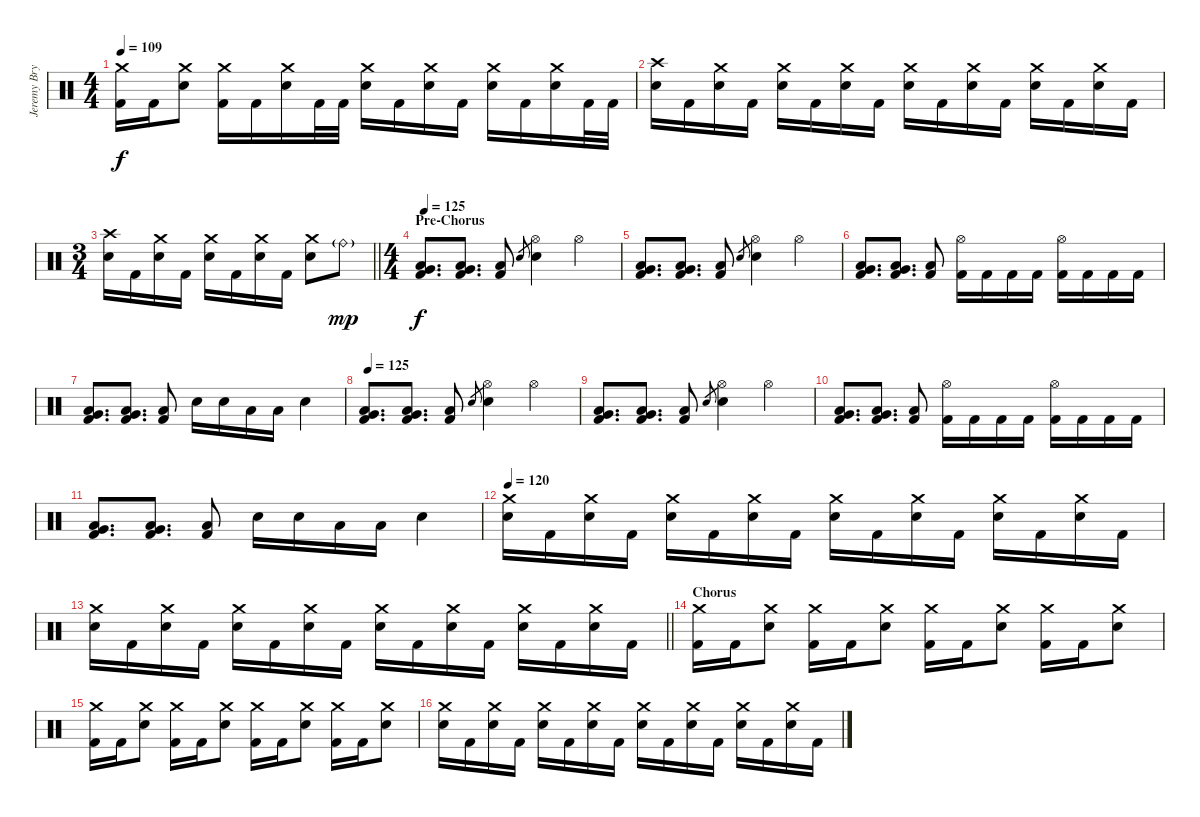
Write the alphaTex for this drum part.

\track ("Jeremy Bryan - Drums" "Jeremy Bry") {instrument percussion}
\staff {score}
\articulation defaults
\ts (4 4)
\tempo 109
\clef neutral
\ks c
("Crash medium (hit)" "Kick (hit) 2").16{dy f} "Kick (hit) 2".16 ("Crash medium (hit)" "Electric Snare (hit)").8 ("Crash medium (hit)" "Kick (hit) 2").16 "Kick (hit) 2".16 ("Crash medium (hit)" "Electric Snare (hit)").16 "Kick (hit) 2".32 "Kick (hit) 2".32 ("Crash medium (hit)" "Electric Snare (hit)").16 "Kick (hit) 2".16 ("Crash medium (hit)" "Electric Snare (hit)").16 "Kick (hit) 2".16 ("Crash medium (hit)" "Electric Snare (hit)").16 "Kick (hit) 2".16 ("Crash medium (hit)" "Electric Snare (hit)").16 "Kick (hit) 2".32 "Kick (hit) 2".32 |
("Crash high (hit)" "Electric Snare (hit)").16 "Kick (hit) 2".16 ("Crash medium (hit)" "Electric Snare (hit)").16 "Kick (hit) 2".16 ("Crash medium (hit)" "Electric Snare (hit)").16 "Kick (hit) 2".16 ("Crash medium (hit)" "Electric Snare (hit)").16 "Kick (hit) 2".16 ("Crash medium (hit)" "Electric Snare (hit)").16 "Kick (hit) 2".16 ("Crash medium (hit)" "Electric Snare (hit)").16 "Kick (hit) 2".16 ("Crash medium (hit)" "Electric Snare (hit)").16 "Kick (hit) 2".16 ("Crash medium (hit)" "Electric Snare (hit)").16 "Kick (hit) 2".16 |
\ts (3 4)
\barLineRight lightlight
("Crash high (hit)" "Electric Snare (hit)").16 "Kick (hit) 2".16 ("Crash medium (hit)" "Electric Snare (hit)").16 "Kick (hit) 2".16 ("Crash medium (hit)" "Electric Snare (hit)").16 "Kick (hit) 2".16 ("Crash medium (hit)" "Electric Snare (hit)").16 "Kick (hit) 2".16 ("Crash medium (hit)" "Electric Snare (hit)").8 "Ride (bell)"{g}.8{dy mp} |
\ts (4 4)
\section ("" "Pre-Chorus")
\tempo 125
("Low Floor Tom (hit)" "Very Low Tom (hit)" "Kick (hit) 2").8{d dy f} ("Low Floor Tom (hit)" "Very Low Tom (hit)" "Kick (hit) 2").8{d} ("Low Floor Tom (hit)" "Kick (hit) 2").8 "Electric Snare (hit)".8{gr} ("Hi-Hat (open)" "Electric Snare (hit)").4 "Hi-Hat (open)".4 |
("Low Floor Tom (hit)" "Very Low Tom (hit)" "Kick (hit) 2").8{d} ("Low Floor Tom (hit)" "Very Low Tom (hit)" "Kick (hit) 2").8{d} ("Low Floor Tom (hit)" "Kick (hit) 2").8 "Electric Snare (hit)".8{gr} ("Hi-Hat (open)" "Electric Snare (hit)").4 "Hi-Hat (open)".4 |
("Low Floor Tom (hit)" "Very Low Tom (hit)" "Kick (hit) 2").8{d} ("Low Floor Tom (hit)" "Very Low Tom (hit)" "Kick (hit) 2").8{d} ("Low Floor Tom (hit)" "Kick (hit) 2").8 ("Hi-Hat (open)" "Kick (hit) 2").16 "Kick (hit) 2".16 "Kick (hit) 2".16 "Kick (hit) 2".16 ("Hi-Hat (open)" "Kick (hit) 2").16 "Kick (hit) 2".16 "Kick (hit) 2".16 "Kick (hit) 2".16 |
("Low Floor Tom (hit)" "Very Low Tom (hit)" "Kick (hit) 2").8{d} ("Low Floor Tom (hit)" "Very Low Tom (hit)" "Kick (hit) 2").8{d} ("Low Floor Tom (hit)" "Kick (hit) 2").8 "Electric Snare (hit)".16 "Electric Snare (hit)".16 "Low Tom (hit)".16 "Low Tom (hit)".16 "Electric Snare (hit)".4 |
\tempo 125
("Low Floor Tom (hit)" "Very Low Tom (hit)" "Kick (hit) 2").8{d} ("Low Floor Tom (hit)" "Very Low Tom (hit)" "Kick (hit) 2").8{d} ("Low Floor Tom (hit)" "Kick (hit) 2").8 "Electric Snare (hit)".8{gr} ("Hi-Hat (open)" "Electric Snare (hit)").4 "Hi-Hat (open)".4 |
("Low Floor Tom (hit)" "Very Low Tom (hit)" "Kick (hit) 2").8{d} ("Low Floor Tom (hit)" "Very Low Tom (hit)" "Kick (hit) 2").8{d} ("Low Floor Tom (hit)" "Kick (hit) 2").8 "Electric Snare (hit)".8{gr} ("Hi-Hat (open)" "Electric Snare (hit)").4 "Hi-Hat (open)".4 |
("Low Floor Tom (hit)" "Very Low Tom (hit)" "Kick (hit) 2").8{d} ("Low Floor Tom (hit)" "Very Low Tom (hit)" "Kick (hit) 2").8{d} ("Low Floor Tom (hit)" "Kick (hit) 2").8 ("Hi-Hat (open)" "Kick (hit) 2").16 "Kick (hit) 2".16 "Kick (hit) 2".16 "Kick (hit) 2".16 ("Hi-Hat (open)" "Kick (hit) 2").16 "Kick (hit) 2".16 "Kick (hit) 2".16 "Kick (hit) 2".16 |
("Low Floor Tom (hit)" "Very Low Tom (hit)" "Kick (hit) 2").8{d} ("Low Floor Tom (hit)" "Very Low Tom (hit)" "Kick (hit) 2").8{d} ("Low Floor Tom (hit)" "Kick (hit) 2").8 "Electric Snare (hit)".16 "Electric Snare (hit)".16 "Low Tom (hit)".16 "Low Tom (hit)".16 "Electric Snare (hit)".4 |
\tempo 120
("Crash medium (hit)" "Electric Snare (hit)").16 "Kick (hit) 2".16 ("Crash medium (hit)" "Electric Snare (hit)").16 "Kick (hit) 2".16 ("Crash medium (hit)" "Electric Snare (hit)").16 "Kick (hit) 2".16 ("Crash medium (hit)" "Electric Snare (hit)").16 "Kick (hit) 2".16 ("Crash medium (hit)" "Electric Snare (hit)").16 "Kick (hit) 2".16 ("Crash medium (hit)" "Electric Snare (hit)").16 "Kick (hit) 2".16 ("Crash medium (hit)" "Electric Snare (hit)").16 "Kick (hit) 2".16 ("Crash medium (hit)" "Electric Snare (hit)").16 "Kick (hit) 2".16 |
\barLineRight lightlight
("Crash medium (hit)" "Electric Snare (hit)").16 "Kick (hit) 2".16 ("Crash medium (hit)" "Electric Snare (hit)").16 "Kick (hit) 2".16 ("Crash medium (hit)" "Electric Snare (hit)").16 "Kick (hit) 2".16 ("Crash medium (hit)" "Electric Snare (hit)").16 "Kick (hit) 2".16 ("Crash medium (hit)" "Electric Snare (hit)").16 "Kick (hit) 2".16 ("Crash medium (hit)" "Electric Snare (hit)").16 "Kick (hit) 2".16 ("Crash medium (hit)" "Electric Snare (hit)").16 "Kick (hit) 2".16 ("Crash medium (hit)" "Electric Snare (hit)").16 "Kick (hit) 2".16 |
\section ("" "Chorus")
("Crash medium (hit)" "Kick (hit) 2").16 "Kick (hit) 2".16 ("Crash medium (hit)" "Electric Snare (hit)").8 ("Crash medium (hit)" "Kick (hit) 2").16 "Kick (hit) 2".16 ("Crash medium (hit)" "Electric Snare (hit)").8 ("Crash medium (hit)" "Kick (hit) 2").16 "Kick (hit) 2".16 ("Crash medium (hit)" "Electric Snare (hit)").8 ("Crash medium (hit)" "Kick (hit) 2").16 "Kick (hit) 2".16 ("Crash medium (hit)" "Electric Snare (hit)").8 |
("Crash medium (hit)" "Kick (hit) 2").16 "Kick (hit) 2".16 ("Crash medium (hit)" "Electric Snare (hit)").8 ("Crash medium (hit)" "Kick (hit) 2").16 "Kick (hit) 2".16 ("Crash medium (hit)" "Electric Snare (hit)").8 ("Crash medium (hit)" "Kick (hit) 2").16 "Kick (hit) 2".16 ("Crash medium (hit)" "Electric Snare (hit)").8 ("Crash medium (hit)" "Kick (hit) 2").16 "Kick (hit) 2".16 ("Crash medium (hit)" "Electric Snare (hit)").8 |
("Crash medium (hit)" "Electric Snare (hit)").16 "Kick (hit) 2".16 ("Crash medium (hit)" "Electric Snare (hit)").16 "Kick (hit) 2".16 ("Crash medium (hit)" "Electric Snare (hit)").16 "Kick (hit) 2".16 ("Crash medium (hit)" "Electric Snare (hit)").16 "Kick (hit) 2".16 ("Crash medium (hit)" "Electric Snare (hit)").16 "Kick (hit) 2".16 ("Crash medium (hit)" "Electric Snare (hit)").16 "Kick (hit) 2".16 ("Crash medium (hit)" "Electric Snare (hit)").16 "Kick (hit) 2".16 ("Crash medium (hit)" "Electric Snare (hit)").16 "Kick (hit) 2".16
